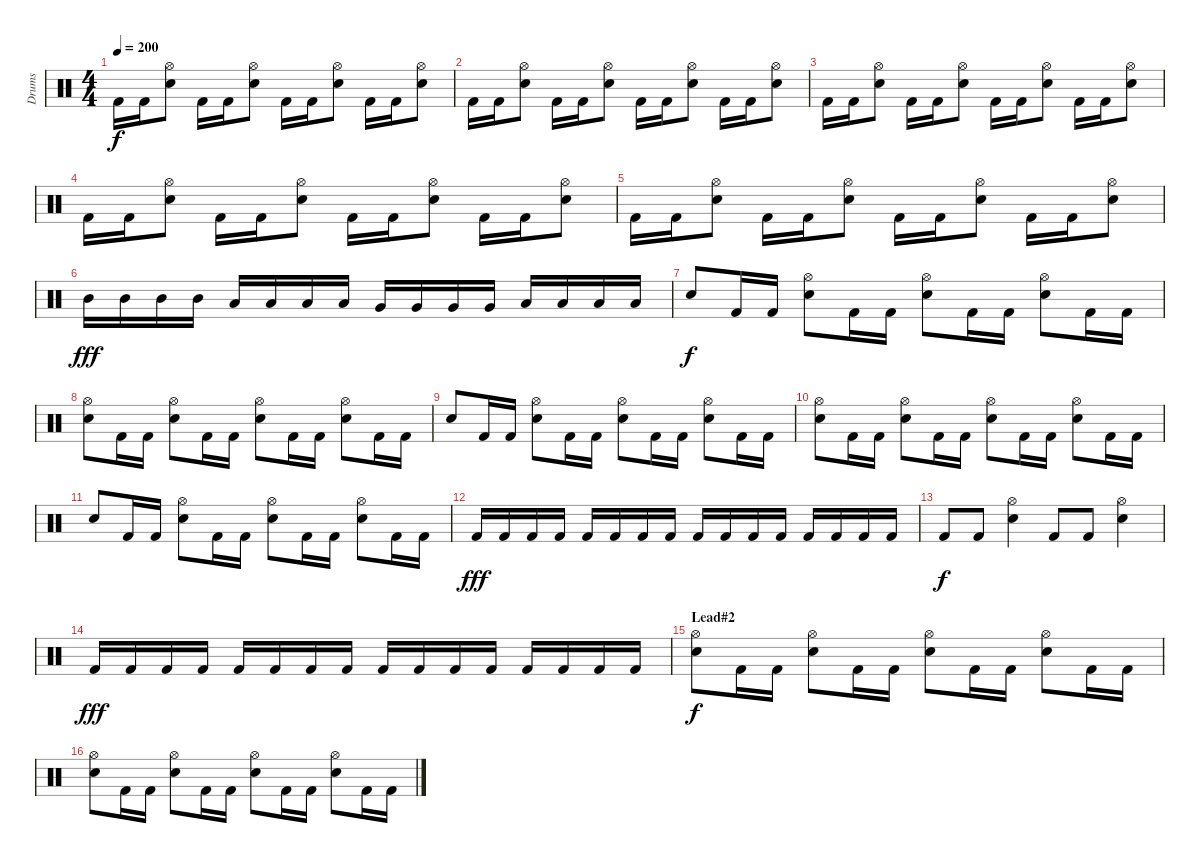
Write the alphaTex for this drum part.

\track ("Drums" "Drums") {instrument percussion}
\staff {score}
\articulation defaults
\ts (4 4)
\tempo 200
\clef neutral
\ks c "Kick (hit) 2".16{dy f} "Kick (hit) 2".16
("Hi-Hat (open)" "Snare (hit) 2").8 "Kick (hit) 2".16 "Kick (hit) 2".16 ("Hi-Hat (open)" "Snare (hit) 2").8 "Kick (hit) 2".16 "Kick (hit) 2".16 ("Hi-Hat (open)" "Snare (hit) 2").8 "Kick (hit) 2".16 "Kick (hit) 2".16 ("Hi-Hat (open)" "Snare (hit) 2").8 |
"Kick (hit) 2".16 "Kick (hit) 2".16 ("Hi-Hat (open)" "Snare (hit) 2").8 "Kick (hit) 2".16 "Kick (hit) 2".16 ("Hi-Hat (open)" "Snare (hit) 2").8 "Kick (hit) 2".16 "Kick (hit) 2".16 ("Hi-Hat (open)" "Snare (hit) 2").8 "Kick (hit) 2".16 "Kick (hit) 2".16 ("Hi-Hat (open)" "Snare (hit) 2").8 |
"Kick (hit) 2".16 "Kick (hit) 2".16 ("Hi-Hat (open)" "Snare (hit) 2").8 "Kick (hit) 2".16 "Kick (hit) 2".16 ("Hi-Hat (open)" "Snare (hit) 2").8 "Kick (hit) 2".16 "Kick (hit) 2".16 ("Hi-Hat (open)" "Snare (hit) 2").8 "Kick (hit) 2".16 "Kick (hit) 2".16 ("Hi-Hat (open)" "Snare (hit) 2").8 |
"Kick (hit) 2".16 "Kick (hit) 2".16 ("Hi-Hat (open)" "Snare (hit) 2").8 "Kick (hit) 2".16 "Kick (hit) 2".16 ("Hi-Hat (open)" "Snare (hit) 2").8 "Kick (hit) 2".16 "Kick (hit) 2".16 ("Hi-Hat (open)" "Snare (hit) 2").8 "Kick (hit) 2".16 "Kick (hit) 2".16 ("Hi-Hat (open)" "Snare (hit) 2").8 |
"Kick (hit) 2".16 "Kick (hit) 2".16 ("Hi-Hat (open)" "Snare (hit) 2").8 "Kick (hit) 2".16 "Kick (hit) 2".16 ("Hi-Hat (open)" "Snare (hit) 2").8 "Kick (hit) 2".16 "Kick (hit) 2".16 ("Hi-Hat (open)" "Snare (hit) 2").8 "Kick (hit) 2".16 "Kick (hit) 2".16 ("Hi-Hat (open)" "Snare (hit) 2").8 |
"Mid Tom (hit)".16{dy fff} "Mid Tom (hit)".16 "Mid Tom (hit)".16 "Mid Tom (hit)".16 "Low Tom (hit)".16 "Low Tom (hit)".16 "Low Tom (hit)".16 "Low Tom (hit)".16 "Very Low Tom (hit)".16 "Very Low Tom (hit)".16 "Very Low Tom (hit)".16 "Very Low Tom (hit)".16 "Low Floor Tom (hit)".16 "Low Floor Tom (hit)".16 "Low Floor Tom (hit)".16 "Low Floor Tom (hit)".16 |
"Snare (hit) 2".8{dy f} "Kick (hit) 2".16 "Kick (hit) 2".16 ("Hi-Hat (open)" "Snare (hit) 2").8 "Kick (hit) 2".16 "Kick (hit) 2".16 ("Hi-Hat (open)" "Snare (hit) 2").8 "Kick (hit) 2".16 "Kick (hit) 2".16 ("Hi-Hat (open)" "Snare (hit) 2").8 "Kick (hit) 2".16 "Kick (hit) 2".16 |
("Hi-Hat (open)" "Snare (hit) 2").8 "Kick (hit) 2".16 "Kick (hit) 2".16 ("Hi-Hat (open)" "Snare (hit) 2").8 "Kick (hit) 2".16 "Kick (hit) 2".16 ("Hi-Hat (open)" "Snare (hit) 2").8 "Kick (hit) 2".16 "Kick (hit) 2".16 ("Hi-Hat (open)" "Snare (hit) 2").8 "Kick (hit) 2".16 "Kick (hit) 2".16 |
"Snare (hit) 2".8 "Kick (hit) 2".16 "Kick (hit) 2".16 ("Hi-Hat (open)" "Snare (hit) 2").8 "Kick (hit) 2".16 "Kick (hit) 2".16 ("Hi-Hat (open)" "Snare (hit) 2").8 "Kick (hit) 2".16 "Kick (hit) 2".16 ("Hi-Hat (open)" "Snare (hit) 2").8 "Kick (hit) 2".16 "Kick (hit) 2".16 |
("Hi-Hat (open)" "Snare (hit) 2").8 "Kick (hit) 2".16 "Kick (hit) 2".16 ("Hi-Hat (open)" "Snare (hit) 2").8 "Kick (hit) 2".16 "Kick (hit) 2".16 ("Hi-Hat (open)" "Snare (hit) 2").8 "Kick (hit) 2".16 "Kick (hit) 2".16 ("Hi-Hat (open)" "Snare (hit) 2").8 "Kick (hit) 2".16 "Kick (hit) 2".16 |
"Snare (hit) 2".8 "Kick (hit) 2".16 "Kick (hit) 2".16 ("Hi-Hat (open)" "Snare (hit) 2").8 "Kick (hit) 2".16 "Kick (hit) 2".16 ("Hi-Hat (open)" "Snare (hit) 2").8 "Kick (hit) 2".16 "Kick (hit) 2".16 ("Hi-Hat (open)" "Snare (hit) 2").8 "Kick (hit) 2".16 "Kick (hit) 2".16 |
"Kick (hit) 2".16{dy fff} "Kick (hit) 2".16 "Kick (hit) 2".16 "Kick (hit) 2".16 "Kick (hit) 2".16 "Kick (hit) 2".16 "Kick (hit) 2".16 "Kick (hit) 2".16 "Kick (hit) 2".16 "Kick (hit) 2".16 "Kick (hit) 2".16 "Kick (hit) 2".16 "Kick (hit) 2".16 "Kick (hit) 2".16 "Kick (hit) 2".16 "Kick (hit) 2".16 |
"Kick (hit) 2".8{dy f} "Kick (hit) 2".8 ("Hi-Hat (open)" "Snare (hit) 2").4 "Kick (hit) 2".8 "Kick (hit) 2".8 ("Hi-Hat (open)" "Snare (hit) 2").4 |
"Kick (hit) 2".16{dy fff} "Kick (hit) 2".16 "Kick (hit) 2".16 "Kick (hit) 2".16 "Kick (hit) 2".16 "Kick (hit) 2".16 "Kick (hit) 2".16 "Kick (hit) 2".16 "Kick (hit) 2".16 "Kick (hit) 2".16 "Kick (hit) 2".16 "Kick (hit) 2".16 "Kick (hit) 2".16 "Kick (hit) 2".16 "Kick (hit) 2".16 "Kick (hit) 2".16 |
\section ("" "Lead#2")
("Hi-Hat (open)" "Snare (hit) 2").8{dy f} "Kick (hit) 2".16 "Kick (hit) 2".16 ("Hi-Hat (open)" "Snare (hit) 2").8 "Kick (hit) 2".16 "Kick (hit) 2".16 ("Hi-Hat (open)" "Snare (hit) 2").8 "Kick (hit) 2".16 "Kick (hit) 2".16 ("Hi-Hat (open)" "Snare (hit) 2").8 "Kick (hit) 2".16 "Kick (hit) 2".16 |
("Hi-Hat (open)" "Snare (hit) 2").8 "Kick (hit) 2".16 "Kick (hit) 2".16 ("Hi-Hat (open)" "Snare (hit) 2").8 "Kick (hit) 2".16 "Kick (hit) 2".16 ("Hi-Hat (open)" "Snare (hit) 2").8 "Kick (hit) 2".16 "Kick (hit) 2".16 ("Hi-Hat (open)" "Snare (hit) 2").8 "Kick (hit) 2".16 "Kick (hit) 2".16
